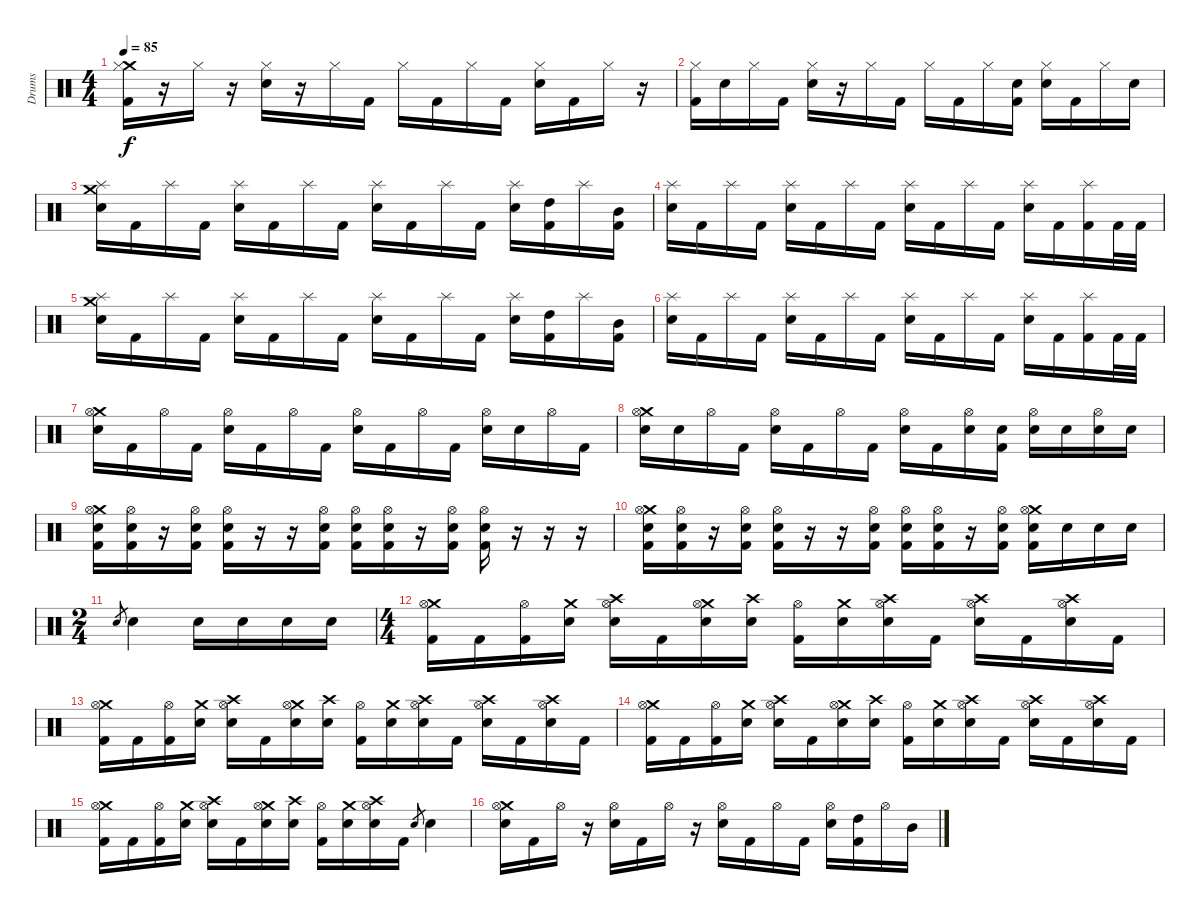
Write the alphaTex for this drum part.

\track ("Drums" "Drums") {instrument percussion}
\staff {score}
\articulation defaults
\ts (4 4)
\tempo 85
\clef neutral
\ks c
("Crash medium (hit)" "Hi-Hat (closed)" "Kick (hit) 2").16{dy f} r.16 "Hi-Hat (closed)".16 r.16 ("Hi-Hat (closed)" "Electric Snare (hit)").16 r.16 "Hi-Hat (closed)".16 "Kick (hit) 2".16 "Hi-Hat (closed)".16 "Kick (hit) 2".16 "Hi-Hat (closed)".16 "Kick (hit) 2".16 ("Hi-Hat (closed)" "Electric Snare (hit)").16 "Kick (hit) 2".16 "Hi-Hat (closed)".16 r.16 |
("Hi-Hat (closed)" "Kick (hit) 2").16 "Electric Snare (hit)".16 "Hi-Hat (closed)".16 "Kick (hit) 2".16 ("Hi-Hat (closed)" "Electric Snare (hit)").16 r.16 "Hi-Hat (closed)".16 "Kick (hit) 2".16 "Hi-Hat (closed)".16 "Kick (hit) 2".16 "Hi-Hat (closed)".16 ("Electric Snare (hit)" "Kick (hit) 2").16 ("Hi-Hat (closed)" "Electric Snare (hit)").16 "Kick (hit) 2".16 "Hi-Hat (closed)".16 "Electric Snare (hit)".16 |
("Crash medium (hit)" "Splash (hit)" "Electric Snare (hit)").16 "Kick (hit) 2".16 "Splash (hit)".16 "Kick (hit) 2".16 ("Splash (hit)" "Electric Snare (hit)").16 "Kick (hit) 2".16 "Splash (hit)".16 "Kick (hit) 2".16 ("Splash (hit)" "Electric Snare (hit)").16 "Kick (hit) 2".16 "Splash (hit)".16 "Kick (hit) 2".16 ("Splash (hit)" "Electric Snare (hit)").16 ("High Tom (hit)" "Kick (hit) 2").16 "Splash (hit)".16 ("Mid Tom (hit)" "Kick (hit) 2").16 |
("Splash (hit)" "Electric Snare (hit)").16 "Kick (hit) 2".16 "Splash (hit)".16 "Kick (hit) 2".16 ("Splash (hit)" "Electric Snare (hit)").16 "Kick (hit) 2".16 "Splash (hit)".16 "Kick (hit) 2".16 ("Splash (hit)" "Electric Snare (hit)").16 "Kick (hit) 2".16 "Splash (hit)".16 "Kick (hit) 2".16 ("Splash (hit)" "Electric Snare (hit)").16 "Kick (hit) 2".16 ("Splash (hit)" "Kick (hit) 2").16 "Kick (hit) 2".32 "Kick (hit) 2".32 |
("Crash medium (hit)" "Splash (hit)" "Electric Snare (hit)").16 "Kick (hit) 2".16 "Splash (hit)".16 "Kick (hit) 2".16 ("Splash (hit)" "Electric Snare (hit)").16 "Kick (hit) 2".16 "Splash (hit)".16 "Kick (hit) 2".16 ("Splash (hit)" "Electric Snare (hit)").16 "Kick (hit) 2".16 "Splash (hit)".16 "Kick (hit) 2".16 ("Splash (hit)" "Electric Snare (hit)").16 ("High Tom (hit)" "Kick (hit) 2").16 "Splash (hit)".16 ("Mid Tom (hit)" "Kick (hit) 2").16 |
("Splash (hit)" "Electric Snare (hit)").16 "Kick (hit) 2".16 "Splash (hit)".16 "Kick (hit) 2".16 ("Splash (hit)" "Electric Snare (hit)").16 "Kick (hit) 2".16 "Splash (hit)".16 "Kick (hit) 2".16 ("Splash (hit)" "Electric Snare (hit)").16 "Kick (hit) 2".16 "Splash (hit)".16 "Kick (hit) 2".16 ("Splash (hit)" "Electric Snare (hit)").16 "Kick (hit) 2".16 ("Splash (hit)" "Kick (hit) 2").16 "Kick (hit) 2".32 "Kick (hit) 2".32 |
("Crash medium (hit)" "Hi-Hat (open)" "Electric Snare (hit)").16 "Kick (hit) 2".16 "Hi-Hat (open)".16 "Kick (hit) 2".16 ("Hi-Hat (open)" "Electric Snare (hit)").16 "Kick (hit) 2".16 "Hi-Hat (open)".16 "Kick (hit) 2".16 ("Hi-Hat (open)" "Electric Snare (hit)").16 "Kick (hit) 2".16 "Hi-Hat (open)".16 "Kick (hit) 2".16 ("Hi-Hat (open)" "Electric Snare (hit)").16 "Electric Snare (hit)".16 "Hi-Hat (open)".16 "Kick (hit) 2".16 |
("Crash medium (hit)" "Hi-Hat (open)" "Electric Snare (hit)").16 "Electric Snare (hit)".16 "Hi-Hat (open)".16 "Kick (hit) 2".16 ("Hi-Hat (open)" "Electric Snare (hit)").16 "Kick (hit) 2".16 "Hi-Hat (open)".16 "Kick (hit) 2".16 ("Hi-Hat (open)" "Electric Snare (hit)").16 "Kick (hit) 2".16 ("Hi-Hat (open)" "Electric Snare (hit)").16 ("Electric Snare (hit)" "Kick (hit) 2").16 ("Hi-Hat (open)" "Electric Snare (hit)").16 "Electric Snare (hit)".16 ("Hi-Hat (open)" "Electric Snare (hit)").16 "Electric Snare (hit)".16 |
("Crash medium (hit)" "Hi-Hat (open)" "Kick (hit) 2" "Electric Snare (hit)").16 ("Hi-Hat (open)" "Electric Snare (hit)" "Kick (hit) 2").16 r.16 ("Hi-Hat (open)" "Electric Snare (hit)" "Kick (hit) 2").16 ("Hi-Hat (open)" "Electric Snare (hit)" "Kick (hit) 2").16 r.16 r.16 ("Hi-Hat (open)" "Electric Snare (hit)" "Kick (hit) 2").16 ("Hi-Hat (open)" "Electric Snare (hit)" "Kick (hit) 2").16 ("Hi-Hat (open)" "Electric Snare (hit)" "Kick (hit) 2").16 r.16 ("Hi-Hat (open)" "Electric Snare (hit)" "Kick (hit) 2").16 ("Hi-Hat (open)" "Electric Snare (hit)" "Kick (hit) 2").16 r.16 r.16 r.16 |
("Crash medium (hit)" "Hi-Hat (open)" "Kick (hit) 2" "Electric Snare (hit)").16 ("Hi-Hat (open)" "Electric Snare (hit)" "Kick (hit) 2").16 r.16 ("Hi-Hat (open)" "Electric Snare (hit)" "Kick (hit) 2").16 ("Hi-Hat (open)" "Electric Snare (hit)" "Kick (hit) 2").16 r.16 r.16 ("Hi-Hat (open)" "Electric Snare (hit)" "Kick (hit) 2").16 ("Hi-Hat (open)" "Electric Snare (hit)" "Kick (hit) 2").16 ("Hi-Hat (open)" "Electric Snare (hit)" "Kick (hit) 2").16 r.16 ("Hi-Hat (open)" "Electric Snare (hit)" "Kick (hit) 2").16 ("Crash medium (hit)" "Hi-Hat (open)" "Electric Snare (hit)" "Kick (hit) 2").16 "Electric Snare (hit)".16 "Electric Snare (hit)".16 "Electric Snare (hit)".16 |
\ts (2 4)
"Electric Snare (hit)".8{gr} "Electric Snare (hit)".4 "Electric Snare (hit)".16 "Electric Snare (hit)".16 "Electric Snare (hit)".16 "Electric Snare (hit)".16 |
\ts (4 4)
("Crash medium (hit)" "Hi-Hat (open)" "Kick (hit) 2").16 "Kick (hit) 2".16 ("Hi-Hat (open)" "Kick (hit) 2").16 ("Crash medium (hit)" "Electric Snare (hit)").16 ("Crash high (hit)" "Hi-Hat (open)" "Electric Snare (hit)").16 "Kick (hit) 2".16 ("Crash medium (hit)" "Hi-Hat (open)" "Electric Snare (hit)").16 ("Crash high (hit)" "Electric Snare (hit)").16 ("Hi-Hat (open)" "Kick (hit) 2").16 ("Crash medium (hit)" "Electric Snare (hit)").16 ("Crash high (hit)" "Hi-Hat (open)" "Electric Snare (hit)").16 "Kick (hit) 2".16 ("Crash high (hit)" "Hi-Hat (open)" "Electric Snare (hit)").16 "Kick (hit) 2".16 ("Crash high (hit)" "Hi-Hat (open)" "Electric Snare (hit)").16 "Kick (hit) 2".16 |
("Crash medium (hit)" "Hi-Hat (open)" "Kick (hit) 2").16 "Kick (hit) 2".16 ("Hi-Hat (open)" "Kick (hit) 2").16 ("Crash medium (hit)" "Electric Snare (hit)").16 ("Crash high (hit)" "Hi-Hat (open)" "Electric Snare (hit)").16 "Kick (hit) 2".16 ("Crash medium (hit)" "Hi-Hat (open)" "Electric Snare (hit)").16 ("Crash high (hit)" "Electric Snare (hit)").16 ("Hi-Hat (open)" "Kick (hit) 2").16 ("Crash medium (hit)" "Electric Snare (hit)").16 ("Crash high (hit)" "Hi-Hat (open)" "Electric Snare (hit)").16 "Kick (hit) 2".16 ("Crash high (hit)" "Hi-Hat (open)" "Electric Snare (hit)").16 "Kick (hit) 2".16 ("Crash high (hit)" "Hi-Hat (open)" "Electric Snare (hit)").16 "Kick (hit) 2".16 |
("Crash medium (hit)" "Hi-Hat (open)" "Kick (hit) 2").16 "Kick (hit) 2".16 ("Hi-Hat (open)" "Kick (hit) 2").16 ("Crash medium (hit)" "Electric Snare (hit)").16 ("Crash high (hit)" "Hi-Hat (open)" "Electric Snare (hit)").16 "Kick (hit) 2".16 ("Crash medium (hit)" "Hi-Hat (open)" "Electric Snare (hit)").16 ("Crash high (hit)" "Electric Snare (hit)").16 ("Hi-Hat (open)" "Kick (hit) 2").16 ("Crash medium (hit)" "Electric Snare (hit)").16 ("Crash high (hit)" "Hi-Hat (open)" "Electric Snare (hit)").16 "Kick (hit) 2".16 ("Crash high (hit)" "Hi-Hat (open)" "Electric Snare (hit)").16 "Kick (hit) 2".16 ("Crash high (hit)" "Hi-Hat (open)" "Electric Snare (hit)").16 "Kick (hit) 2".16 |
("Crash medium (hit)" "Hi-Hat (open)" "Kick (hit) 2").16 "Kick (hit) 2".16 ("Hi-Hat (open)" "Kick (hit) 2").16 ("Crash medium (hit)" "Electric Snare (hit)").16 ("Crash high (hit)" "Hi-Hat (open)" "Electric Snare (hit)").16 "Kick (hit) 2".16 ("Crash medium (hit)" "Hi-Hat (open)" "Electric Snare (hit)").16 ("Crash high (hit)" "Electric Snare (hit)").16 ("Hi-Hat (open)" "Kick (hit) 2").16 ("Crash medium (hit)" "Electric Snare (hit)").16 ("Crash high (hit)" "Hi-Hat (open)" "Electric Snare (hit)").16 "Kick (hit) 2".16 "Electric Snare (hit)".8{gr} "Electric Snare (hit)".4 |
("Crash medium (hit)" "Hi-Hat (open)" "Electric Snare (hit)").16 "Kick (hit) 2".16 "Hi-Hat (open)".16 r.16 ("Hi-Hat (open)" "Electric Snare (hit)").16 "Kick (hit) 2".16 "Hi-Hat (open)".16 r.16 ("Hi-Hat (open)" "Electric Snare (hit)").16 "Kick (hit) 2".16 "Hi-Hat (open)".16 "Kick (hit) 2".16 ("Hi-Hat (open)" "Electric Snare (hit)").16 ("High Tom (hit)" "Kick (hit) 2").16 "Hi-Hat (open)".16 "Mid Tom (hit)".16
